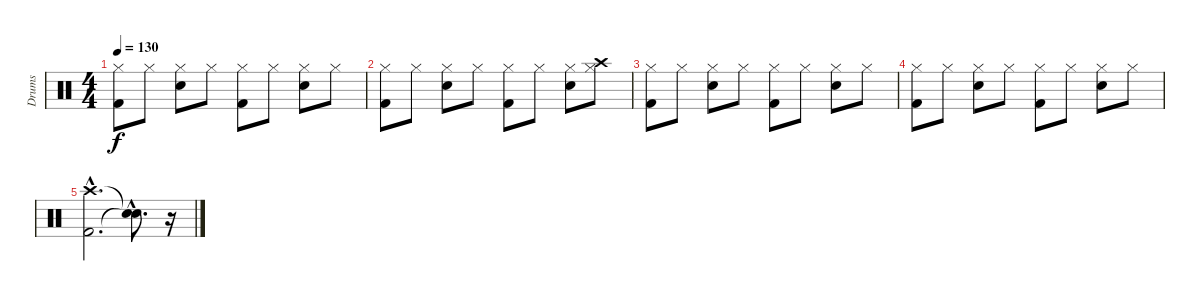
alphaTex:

\track ("Drums" "Drums") {instrument percussion}
\staff {score}
\articulation defaults
\ts (4 4)
\tempo 130
\clef neutral
\ks c
("Kick (hit) 2" "Hi-Hat (closed)").8{dy f} "Hi-Hat (closed)".8 ("Snare (hit) 2" "Hi-Hat (closed)").8 "Hi-Hat (closed)".8 ("Kick (hit) 2" "Hi-Hat (closed)").8 "Hi-Hat (closed)".8 ("Snare (hit) 2" "Hi-Hat (closed)").8 "Hi-Hat (closed)".8 |
("Kick (hit) 2" "Hi-Hat (closed)").8 "Hi-Hat (closed)".8 ("Snare (hit) 2" "Hi-Hat (closed)").8 "Hi-Hat (closed)".8 ("Kick (hit) 2" "Hi-Hat (closed)").8 "Hi-Hat (closed)".8 ("Snare (hit) 2" "Hi-Hat (closed)").8 ("Hi-Hat (closed)" "Crash high (hit)").8 |
("Kick (hit) 2" "Hi-Hat (closed)").8 "Hi-Hat (closed)".8 ("Snare (hit) 2" "Hi-Hat (closed)").8 "Hi-Hat (closed)".8 ("Kick (hit) 2" "Hi-Hat (closed)").8 "Hi-Hat (closed)".8 ("Snare (hit) 2" "Hi-Hat (closed)").8 "Hi-Hat (closed)".8 |
("Kick (hit) 2" "Hi-Hat (closed)").8 "Hi-Hat (closed)".8 ("Snare (hit) 2" "Hi-Hat (closed)").8 "Hi-Hat (closed)".8 ("Kick (hit) 2" "Hi-Hat (closed)").8 "Hi-Hat (closed)".8 ("Snare (hit) 2" "Hi-Hat (closed)").8 "Hi-Hat (closed)".8 |
("Kick (hit) 2"{hac} "Crash high (hit)"{hac}).2{d} ("Snare (hit)"{hac t} "Snare (hit)"{hac t}).8{d} r.16
